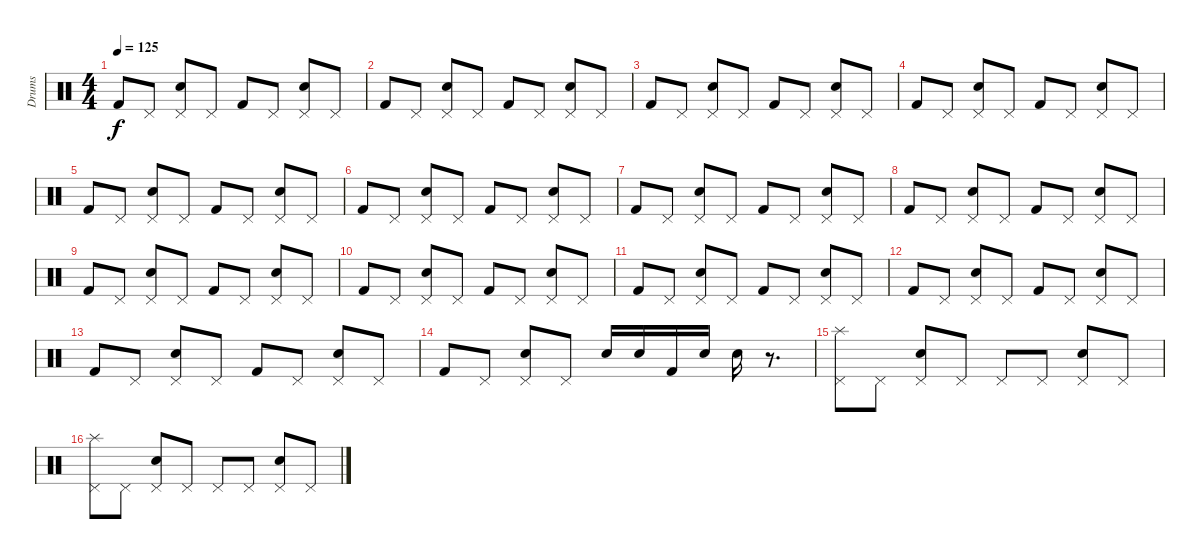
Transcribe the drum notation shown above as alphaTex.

\track ("Drums" "Drums") {instrument percussion}
\staff {score}
\articulation defaults
\ts (4 4)
\tempo 125
\clef neutral
\ks c "Kick (hit) 2".8{dy f} "Pedal Hi-Hat (hit)".8
("Pedal Hi-Hat (hit)" "Electric Snare (hit)").8 "Pedal Hi-Hat (hit)".8 "Kick (hit) 2".8 "Pedal Hi-Hat (hit)".8 ("Pedal Hi-Hat (hit)" "Electric Snare (hit)").8 "Pedal Hi-Hat (hit)".8 |
"Kick (hit) 2".8 "Pedal Hi-Hat (hit)".8 ("Pedal Hi-Hat (hit)" "Electric Snare (hit)").8 "Pedal Hi-Hat (hit)".8 "Kick (hit) 2".8 "Pedal Hi-Hat (hit)".8 ("Pedal Hi-Hat (hit)" "Electric Snare (hit)").8 "Pedal Hi-Hat (hit)".8 |
"Kick (hit) 2".8 "Pedal Hi-Hat (hit)".8 ("Pedal Hi-Hat (hit)" "Electric Snare (hit)").8 "Pedal Hi-Hat (hit)".8 "Kick (hit) 2".8 "Pedal Hi-Hat (hit)".8 ("Pedal Hi-Hat (hit)" "Electric Snare (hit)").8 "Pedal Hi-Hat (hit)".8 |
"Kick (hit) 2".8 "Pedal Hi-Hat (hit)".8 ("Pedal Hi-Hat (hit)" "Electric Snare (hit)").8 "Pedal Hi-Hat (hit)".8 "Kick (hit) 2".8 "Pedal Hi-Hat (hit)".8 ("Pedal Hi-Hat (hit)" "Electric Snare (hit)").8 "Pedal Hi-Hat (hit)".8 |
"Kick (hit) 2".8 "Pedal Hi-Hat (hit)".8 ("Pedal Hi-Hat (hit)" "Electric Snare (hit)").8 "Pedal Hi-Hat (hit)".8 "Kick (hit) 2".8 "Pedal Hi-Hat (hit)".8 ("Pedal Hi-Hat (hit)" "Electric Snare (hit)").8 "Pedal Hi-Hat (hit)".8 |
"Kick (hit) 2".8 "Pedal Hi-Hat (hit)".8 ("Pedal Hi-Hat (hit)" "Electric Snare (hit)").8 "Pedal Hi-Hat (hit)".8 "Kick (hit) 2".8 "Pedal Hi-Hat (hit)".8 ("Pedal Hi-Hat (hit)" "Electric Snare (hit)").8 "Pedal Hi-Hat (hit)".8 |
"Kick (hit) 2".8 "Pedal Hi-Hat (hit)".8 ("Pedal Hi-Hat (hit)" "Electric Snare (hit)").8 "Pedal Hi-Hat (hit)".8 "Kick (hit) 2".8 "Pedal Hi-Hat (hit)".8 ("Pedal Hi-Hat (hit)" "Electric Snare (hit)").8 "Pedal Hi-Hat (hit)".8 |
"Kick (hit) 2".8 "Pedal Hi-Hat (hit)".8 ("Pedal Hi-Hat (hit)" "Electric Snare (hit)").8 "Pedal Hi-Hat (hit)".8 "Kick (hit) 2".8 "Pedal Hi-Hat (hit)".8 ("Pedal Hi-Hat (hit)" "Electric Snare (hit)").8 "Pedal Hi-Hat (hit)".8 |
"Kick (hit) 2".8 "Pedal Hi-Hat (hit)".8 ("Pedal Hi-Hat (hit)" "Electric Snare (hit)").8 "Pedal Hi-Hat (hit)".8 "Kick (hit) 2".8 "Pedal Hi-Hat (hit)".8 ("Pedal Hi-Hat (hit)" "Electric Snare (hit)").8 "Pedal Hi-Hat (hit)".8 |
"Kick (hit) 2".8 "Pedal Hi-Hat (hit)".8 ("Pedal Hi-Hat (hit)" "Electric Snare (hit)").8 "Pedal Hi-Hat (hit)".8 "Kick (hit) 2".8 "Pedal Hi-Hat (hit)".8 ("Pedal Hi-Hat (hit)" "Electric Snare (hit)").8 "Pedal Hi-Hat (hit)".8 |
"Kick (hit) 2".8 "Pedal Hi-Hat (hit)".8 ("Pedal Hi-Hat (hit)" "Electric Snare (hit)").8 "Pedal Hi-Hat (hit)".8 "Kick (hit) 2".8 "Pedal Hi-Hat (hit)".8 ("Pedal Hi-Hat (hit)" "Electric Snare (hit)").8 "Pedal Hi-Hat (hit)".8 |
"Kick (hit) 2".8 "Pedal Hi-Hat (hit)".8 ("Pedal Hi-Hat (hit)" "Electric Snare (hit)").8 "Pedal Hi-Hat (hit)".8 "Kick (hit) 2".8 "Pedal Hi-Hat (hit)".8 ("Pedal Hi-Hat (hit)" "Electric Snare (hit)").8 "Pedal Hi-Hat (hit)".8 |
"Kick (hit) 2".8 "Pedal Hi-Hat (hit)".8 ("Pedal Hi-Hat (hit)" "Electric Snare (hit)").8 "Pedal Hi-Hat (hit)".8 "Kick (hit) 2".8 "Pedal Hi-Hat (hit)".8 ("Pedal Hi-Hat (hit)" "Electric Snare (hit)").8 "Pedal Hi-Hat (hit)".8 |
"Kick (hit) 2".8 "Pedal Hi-Hat (hit)".8 ("Pedal Hi-Hat (hit)" "Electric Snare (hit)").8 "Pedal Hi-Hat (hit)".8 "Electric Snare (hit)".16 "Electric Snare (hit)".16 "Kick (hit) 2".16 "Electric Snare (hit)".16 "Electric Snare (hit)".16 r.8{d} |
("Splash (hit)" "Pedal Hi-Hat (hit)").8 "Pedal Hi-Hat (hit)".8 ("Pedal Hi-Hat (hit)" "Electric Snare (hit)").8 "Pedal Hi-Hat (hit)".8 "Pedal Hi-Hat (hit)".8 "Pedal Hi-Hat (hit)".8 ("Pedal Hi-Hat (hit)" "Electric Snare (hit)").8 "Pedal Hi-Hat (hit)".8 |
("Splash (hit)" "Pedal Hi-Hat (hit)").8 "Pedal Hi-Hat (hit)".8 ("Pedal Hi-Hat (hit)" "Electric Snare (hit)").8 "Pedal Hi-Hat (hit)".8 "Pedal Hi-Hat (hit)".8 "Pedal Hi-Hat (hit)".8 ("Pedal Hi-Hat (hit)" "Electric Snare (hit)").8 "Pedal Hi-Hat (hit)".8
